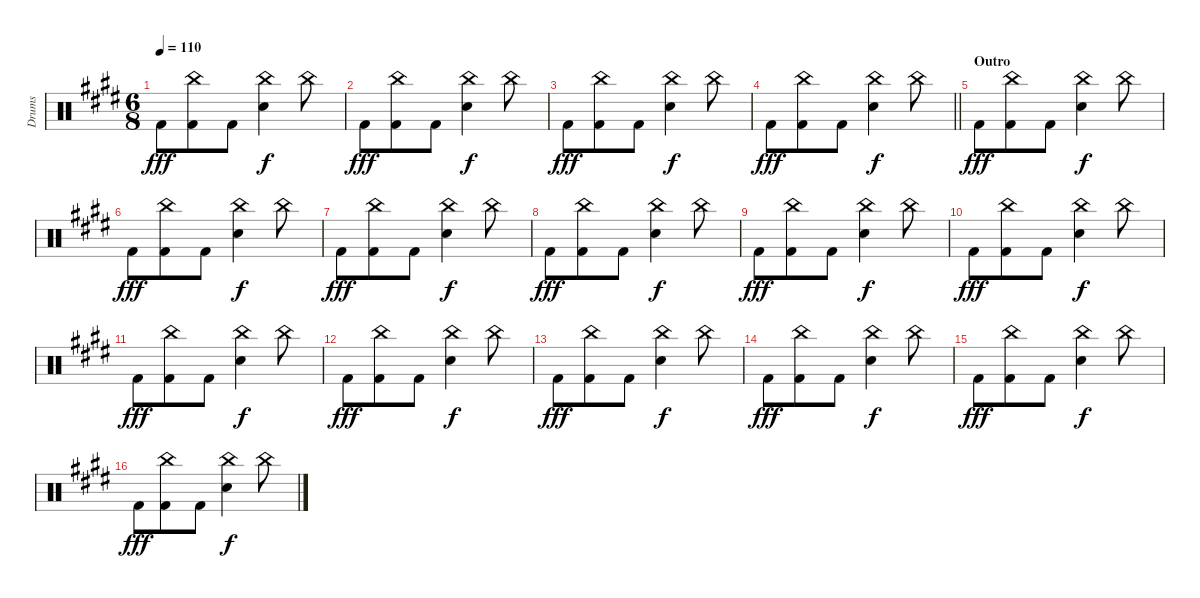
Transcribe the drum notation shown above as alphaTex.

\track ("Drums" "Drums") {instrument percussion}
\staff {score}
\articulation defaults
\ts (6 8)
\tempo 110
\clef neutral
\ks c#minor "Kick (hit) 2".8{dy fff}
("China (hit)" "Kick (hit) 2").8 "Kick (hit) 2".8 ("China (hit)" "Electric Snare (hit)").4{dy f} "China (hit)".8 |
"Kick (hit) 2".8{dy fff} ("China (hit)" "Kick (hit) 2").8 "Kick (hit) 2".8 ("China (hit)" "Electric Snare (hit)").4{dy f} "China (hit)".8 |
"Kick (hit) 2".8{dy fff} ("China (hit)" "Kick (hit) 2").8 "Kick (hit) 2".8 ("China (hit)" "Electric Snare (hit)").4{dy f} "China (hit)".8 |
\barLineRight lightlight "Kick (hit) 2".8{dy fff}
("China (hit)" "Kick (hit) 2").8 "Kick (hit) 2".8 ("China (hit)" "Electric Snare (hit)").4{dy f} "China (hit)".8 |
\section ("" "Outro")
"Kick (hit) 2".8{dy fff} ("China (hit)" "Kick (hit) 2").8 "Kick (hit) 2".8 ("China (hit)" "Electric Snare (hit)").4{dy f} "China (hit)".8 |
"Kick (hit) 2".8{dy fff} ("China (hit)" "Kick (hit) 2").8 "Kick (hit) 2".8 ("China (hit)" "Electric Snare (hit)").4{dy f} "China (hit)".8 |
"Kick (hit) 2".8{dy fff} ("China (hit)" "Kick (hit) 2").8 "Kick (hit) 2".8 ("China (hit)" "Electric Snare (hit)").4{dy f} "China (hit)".8 |
"Kick (hit) 2".8{dy fff} ("China (hit)" "Kick (hit) 2").8 "Kick (hit) 2".8 ("China (hit)" "Electric Snare (hit)").4{dy f} "China (hit)".8 |
"Kick (hit) 2".8{dy fff} ("China (hit)" "Kick (hit) 2").8 "Kick (hit) 2".8 ("China (hit)" "Electric Snare (hit)").4{dy f} "China (hit)".8 |
"Kick (hit) 2".8{dy fff} ("China (hit)" "Kick (hit) 2").8 "Kick (hit) 2".8 ("China (hit)" "Electric Snare (hit)").4{dy f} "China (hit)".8 |
"Kick (hit) 2".8{dy fff} ("China (hit)" "Kick (hit) 2").8 "Kick (hit) 2".8 ("China (hit)" "Electric Snare (hit)").4{dy f} "China (hit)".8 |
"Kick (hit) 2".8{dy fff} ("China (hit)" "Kick (hit) 2").8 "Kick (hit) 2".8 ("China (hit)" "Electric Snare (hit)").4{dy f} "China (hit)".8 |
"Kick (hit) 2".8{dy fff} ("China (hit)" "Kick (hit) 2").8 "Kick (hit) 2".8 ("China (hit)" "Electric Snare (hit)").4{dy f} "China (hit)".8 |
"Kick (hit) 2".8{dy fff} ("China (hit)" "Kick (hit) 2").8 "Kick (hit) 2".8 ("China (hit)" "Electric Snare (hit)").4{dy f} "China (hit)".8 |
"Kick (hit) 2".8{dy fff} ("China (hit)" "Kick (hit) 2").8 "Kick (hit) 2".8 ("China (hit)" "Electric Snare (hit)").4{dy f} "China (hit)".8 |
"Kick (hit) 2".8{dy fff} ("China (hit)" "Kick (hit) 2").8 "Kick (hit) 2".8 ("China (hit)" "Electric Snare (hit)").4{dy f} "China (hit)".8
